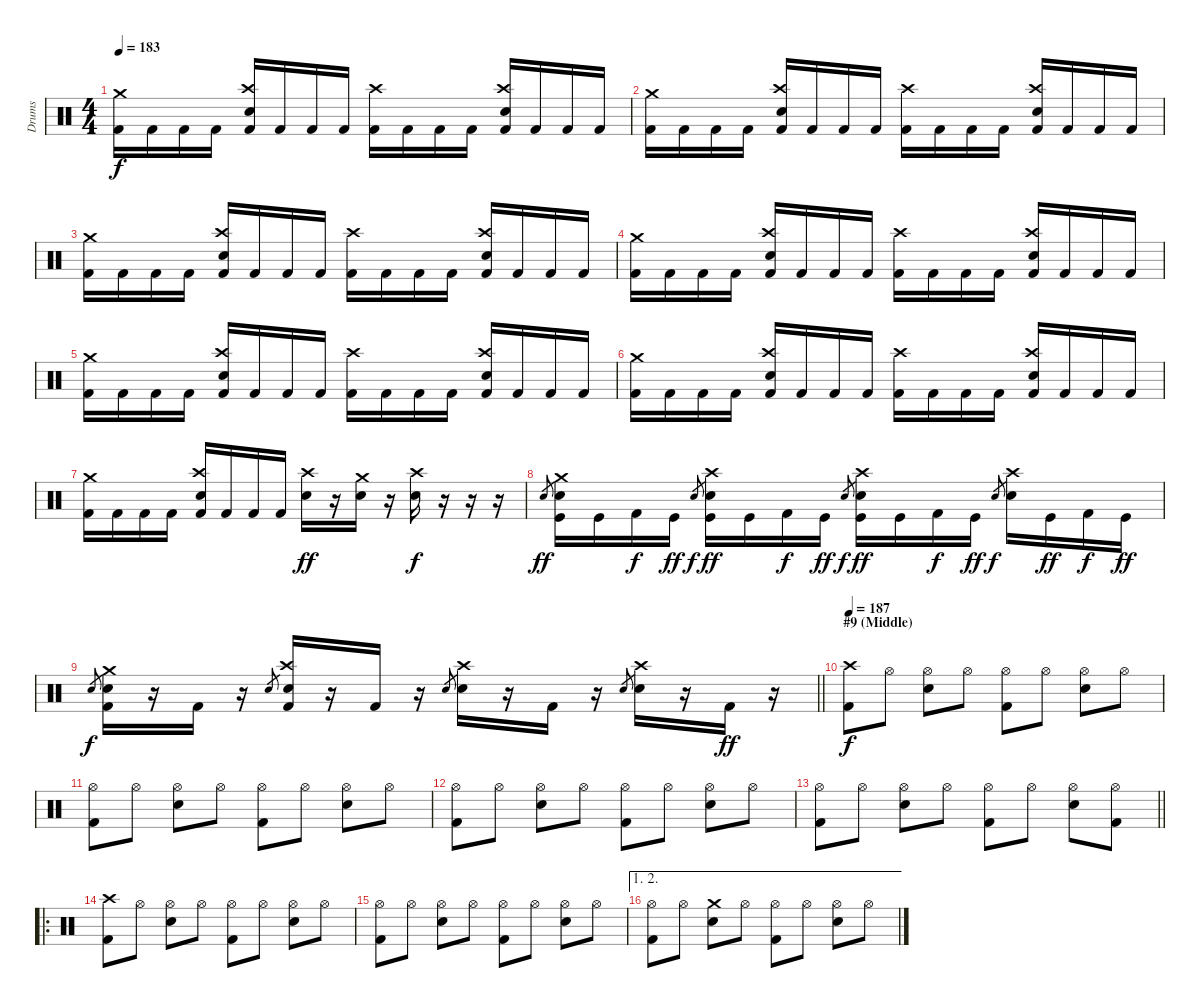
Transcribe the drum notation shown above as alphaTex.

\track ("Drums" "Drums") {instrument percussion}
\staff {score}
\articulation defaults
\ts (4 4)
\tempo 183
\clef neutral
\ks c
("Crash medium (hit)" "Kick (hit) 2").16{dy f} "Kick (hit) 2".16 "Kick (hit) 2".16 "Kick (hit) 2".16 ("Crash high (hit)" "Electric Snare (hit)" "Kick (hit) 2").16 "Kick (hit) 2".16 "Kick (hit) 2".16 "Kick (hit) 2".16 ("Crash high (hit)" "Kick (hit) 2").16 "Kick (hit) 2".16 "Kick (hit) 2".16 "Kick (hit) 2".16 ("Crash high (hit)" "Electric Snare (hit)" "Kick (hit) 2").16 "Kick (hit) 2".16 "Kick (hit) 2".16 "Kick (hit) 2".16 |
("Crash medium (hit)" "Kick (hit) 2").16 "Kick (hit) 2".16 "Kick (hit) 2".16 "Kick (hit) 2".16 ("Crash high (hit)" "Electric Snare (hit)" "Kick (hit) 2").16 "Kick (hit) 2".16 "Kick (hit) 2".16 "Kick (hit) 2".16 ("Crash high (hit)" "Kick (hit) 2").16 "Kick (hit) 2".16 "Kick (hit) 2".16 "Kick (hit) 2".16 ("Crash high (hit)" "Electric Snare (hit)" "Kick (hit) 2").16 "Kick (hit) 2".16 "Kick (hit) 2".16 "Kick (hit) 2".16 |
("Crash medium (hit)" "Kick (hit) 2").16 "Kick (hit) 2".16 "Kick (hit) 2".16 "Kick (hit) 2".16 ("Crash high (hit)" "Electric Snare (hit)" "Kick (hit) 2").16 "Kick (hit) 2".16 "Kick (hit) 2".16 "Kick (hit) 2".16 ("Crash high (hit)" "Kick (hit) 2").16 "Kick (hit) 2".16 "Kick (hit) 2".16 "Kick (hit) 2".16 ("Crash high (hit)" "Electric Snare (hit)" "Kick (hit) 2").16 "Kick (hit) 2".16 "Kick (hit) 2".16 "Kick (hit) 2".16 |
("Crash medium (hit)" "Kick (hit) 2").16 "Kick (hit) 2".16 "Kick (hit) 2".16 "Kick (hit) 2".16 ("Crash high (hit)" "Electric Snare (hit)" "Kick (hit) 2").16 "Kick (hit) 2".16 "Kick (hit) 2".16 "Kick (hit) 2".16 ("Crash high (hit)" "Kick (hit) 2").16 "Kick (hit) 2".16 "Kick (hit) 2".16 "Kick (hit) 2".16 ("Crash high (hit)" "Electric Snare (hit)" "Kick (hit) 2").16 "Kick (hit) 2".16 "Kick (hit) 2".16 "Kick (hit) 2".16 |
("Crash medium (hit)" "Kick (hit) 2").16 "Kick (hit) 2".16 "Kick (hit) 2".16 "Kick (hit) 2".16 ("Crash high (hit)" "Electric Snare (hit)" "Kick (hit) 2").16 "Kick (hit) 2".16 "Kick (hit) 2".16 "Kick (hit) 2".16 ("Crash high (hit)" "Kick (hit) 2").16 "Kick (hit) 2".16 "Kick (hit) 2".16 "Kick (hit) 2".16 ("Crash high (hit)" "Electric Snare (hit)" "Kick (hit) 2").16 "Kick (hit) 2".16 "Kick (hit) 2".16 "Kick (hit) 2".16 |
("Crash medium (hit)" "Kick (hit) 2").16 "Kick (hit) 2".16 "Kick (hit) 2".16 "Kick (hit) 2".16 ("Crash high (hit)" "Electric Snare (hit)" "Kick (hit) 2").16 "Kick (hit) 2".16 "Kick (hit) 2".16 "Kick (hit) 2".16 ("Crash high (hit)" "Kick (hit) 2").16 "Kick (hit) 2".16 "Kick (hit) 2".16 "Kick (hit) 2".16 ("Crash high (hit)" "Electric Snare (hit)" "Kick (hit) 2").16 "Kick (hit) 2".16 "Kick (hit) 2".16 "Kick (hit) 2".16 |
("Crash medium (hit)" "Kick (hit) 2").16 "Kick (hit) 2".16 "Kick (hit) 2".16 "Kick (hit) 2".16 ("Crash high (hit)" "Electric Snare (hit)" "Kick (hit) 2").16 "Kick (hit) 2".16 "Kick (hit) 2".16 "Kick (hit) 2".16 ("Crash high (hit)" "Electric Snare (hit)").16{dy ff} r.16 ("Crash medium (hit)" "Electric Snare (hit)").16 r.16 ("Crash high (hit)" "Electric Snare (hit)").16{dy f} r.16 r.16 r.16 |
"Electric Snare (hit)".8{gr dy ff} ("Crash medium (hit)" "Electric Snare (hit)" "Kick (hit)").16 "Kick (hit)".16 "Kick (hit) 2".16{dy f} "Kick (hit)".16{dy ff} "Electric Snare (hit)".8{gr dy f} ("Crash high (hit)" "Electric Snare (hit)" "Kick (hit)").16{dy ff} "Kick (hit)".16 "Kick (hit) 2".16{dy f} "Kick (hit)".16{dy ff} "Electric Snare (hit)".8{gr dy f} ("Crash high (hit)" "Electric Snare (hit)" "Kick (hit)").16{dy ff} "Kick (hit)".16 "Kick (hit) 2".16{dy f} "Kick (hit)".16{dy ff} "Electric Snare (hit)".8{gr dy f} ("Crash high (hit)" "Electric Snare (hit)").16 "Kick (hit)".16{dy ff} "Kick (hit) 2".16{dy f} "Kick (hit)".16{dy ff} |
\barLineRight lightlight "Electric Snare (hit)".8{gr dy f}
("Crash medium (hit)" "Electric Snare (hit)" "Kick (hit) 2").16 r.16 "Kick (hit) 2".16 r.16 "Electric Snare (hit)".8{gr} ("Crash high (hit)" "Electric Snare (hit)" "Kick (hit) 2").16 r.16 "Kick (hit) 2".16 r.16 "Electric Snare (hit)".8{gr} ("Crash high (hit)" "Electric Snare (hit)").16 r.16 "Kick (hit) 2".16 r.16 "Electric Snare (hit)".8{gr} ("Crash high (hit)" "Electric Snare (hit)").16 r.16 "Kick (hit) 2".16{dy ff} r.16 |
\section ("" "#9 (Middle)")
\tempo 187
("Crash high (hit)" "Kick (hit) 2").8{dy f} "Hi-Hat (open)".8 ("Hi-Hat (open)" "Electric Snare (hit)").8 "Hi-Hat (open)".8 ("Hi-Hat (open)" "Kick (hit) 2").8 "Hi-Hat (open)".8 ("Hi-Hat (open)" "Electric Snare (hit)").8 "Hi-Hat (open)".8 |
("Hi-Hat (open)" "Kick (hit) 2").8 "Hi-Hat (open)".8 ("Hi-Hat (open)" "Electric Snare (hit)").8 "Hi-Hat (open)".8 ("Hi-Hat (open)" "Kick (hit) 2").8 "Hi-Hat (open)".8 ("Hi-Hat (open)" "Electric Snare (hit)").8 "Hi-Hat (open)".8 |
("Hi-Hat (open)" "Kick (hit) 2").8 "Hi-Hat (open)".8 ("Hi-Hat (open)" "Electric Snare (hit)").8 "Hi-Hat (open)".8 ("Hi-Hat (open)" "Kick (hit) 2").8 "Hi-Hat (open)".8 ("Hi-Hat (open)" "Electric Snare (hit)").8 "Hi-Hat (open)".8 |
\barLineRight lightlight
("Hi-Hat (open)" "Kick (hit) 2").8 "Hi-Hat (open)".8 ("Hi-Hat (open)" "Electric Snare (hit)").8 "Hi-Hat (open)".8 ("Hi-Hat (open)" "Kick (hit) 2").8 "Hi-Hat (open)".8 ("Hi-Hat (open)" "Electric Snare (hit)").8 ("Hi-Hat (open)" "Kick (hit) 2").8 |
\ro
("Crash high (hit)" "Kick (hit) 2").8 "Hi-Hat (open)".8 ("Hi-Hat (open)" "Electric Snare (hit)").8 "Hi-Hat (open)".8 ("Hi-Hat (open)" "Kick (hit) 2").8 "Hi-Hat (open)".8 ("Hi-Hat (open)" "Electric Snare (hit)").8 "Hi-Hat (open)".8 |
("Hi-Hat (open)" "Kick (hit) 2").8 "Hi-Hat (open)".8 ("Hi-Hat (open)" "Electric Snare (hit)").8 "Hi-Hat (open)".8 ("Hi-Hat (open)" "Kick (hit) 2").8 "Hi-Hat (open)".8 ("Hi-Hat (open)" "Electric Snare (hit)").8 "Hi-Hat (open)".8 |
\ae (1 2)
("Hi-Hat (open)" "Kick (hit) 2").8 "Hi-Hat (open)".8 ("Crash medium (hit)" "Electric Snare (hit)").8 "Hi-Hat (open)".8 ("Hi-Hat (open)" "Kick (hit) 2").8 "Hi-Hat (open)".8 ("Hi-Hat (open)" "Electric Snare (hit)").8 "Hi-Hat (open)".8
